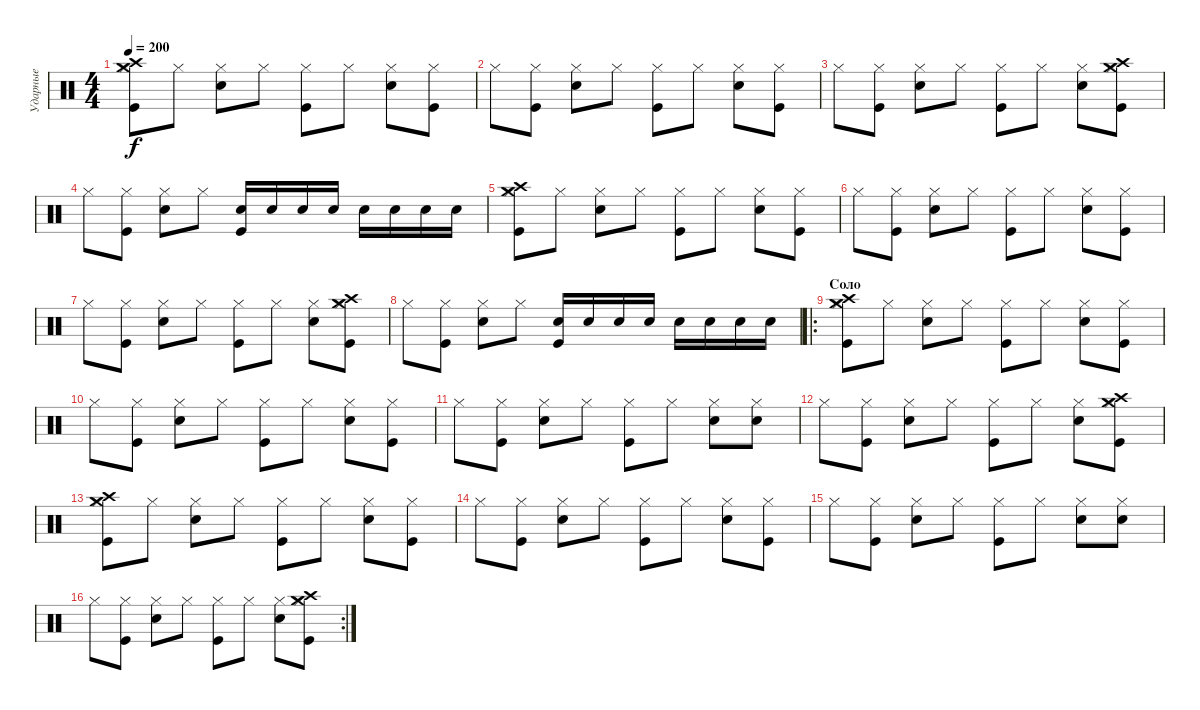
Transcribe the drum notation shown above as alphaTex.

\track ("Ударные" "Ударные") {instrument percussion}
\staff {score}
\articulation defaults
\ts (4 4)
\tempo 200
\clef neutral
\ks c
("Crash high (hit)" "Crash medium (hit)" "Hi-Hat (closed)" "Kick (hit)").8{dy f} "Hi-Hat (closed)".8 ("Electric Snare (hit)" "Hi-Hat (closed)").8 "Hi-Hat (closed)".8 ("Hi-Hat (closed)" "Kick (hit)").8 "Hi-Hat (closed)".8 ("Hi-Hat (closed)" "Electric Snare (hit)").8 ("Kick (hit)" "Hi-Hat (closed)").8 |
"Hi-Hat (closed)".8 ("Kick (hit)" "Hi-Hat (closed)").8 ("Electric Snare (hit)" "Hi-Hat (closed)").8 "Hi-Hat (closed)".8 ("Hi-Hat (closed)" "Kick (hit)").8 "Hi-Hat (closed)".8 ("Hi-Hat (closed)" "Electric Snare (hit)").8 ("Kick (hit)" "Hi-Hat (closed)").8 |
"Hi-Hat (closed)".8 ("Kick (hit)" "Hi-Hat (closed)").8 ("Electric Snare (hit)" "Hi-Hat (closed)").8 "Hi-Hat (closed)".8 ("Hi-Hat (closed)" "Kick (hit)").8 "Hi-Hat (closed)".8 ("Hi-Hat (closed)" "Electric Snare (hit)").8 ("Crash medium (hit)" "Hi-Hat (closed)" "Kick (hit)" "Crash high (hit)").8 |
"Hi-Hat (closed)".8 ("Kick (hit)" "Hi-Hat (closed)").8 ("Electric Snare (hit)" "Hi-Hat (closed)").8 "Hi-Hat (closed)".8 ("Electric Snare (hit)" "Kick (hit)").16 "Electric Snare (hit)".16 "Electric Snare (hit)".16 "Electric Snare (hit)".16 "Electric Snare (hit)".16 "Electric Snare (hit)".16 "Electric Snare (hit)".16 "Electric Snare (hit)".16 |
("Crash high (hit)" "Crash medium (hit)" "Hi-Hat (closed)" "Kick (hit)").8 "Hi-Hat (closed)".8 ("Electric Snare (hit)" "Hi-Hat (closed)").8 "Hi-Hat (closed)".8 ("Hi-Hat (closed)" "Kick (hit)").8 "Hi-Hat (closed)".8 ("Hi-Hat (closed)" "Electric Snare (hit)").8 ("Kick (hit)" "Hi-Hat (closed)").8 |
"Hi-Hat (closed)".8 ("Kick (hit)" "Hi-Hat (closed)").8 ("Electric Snare (hit)" "Hi-Hat (closed)").8 "Hi-Hat (closed)".8 ("Hi-Hat (closed)" "Kick (hit)").8 "Hi-Hat (closed)".8 ("Hi-Hat (closed)" "Electric Snare (hit)").8 ("Kick (hit)" "Hi-Hat (closed)").8 |
"Hi-Hat (closed)".8 ("Kick (hit)" "Hi-Hat (closed)").8 ("Electric Snare (hit)" "Hi-Hat (closed)").8 "Hi-Hat (closed)".8 ("Hi-Hat (closed)" "Kick (hit)").8 "Hi-Hat (closed)".8 ("Hi-Hat (closed)" "Electric Snare (hit)").8 ("Crash medium (hit)" "Hi-Hat (closed)" "Kick (hit)" "Crash high (hit)").8 |
"Hi-Hat (closed)".8 ("Kick (hit)" "Hi-Hat (closed)").8 ("Electric Snare (hit)" "Hi-Hat (closed)").8 "Hi-Hat (closed)".8 ("Electric Snare (hit)" "Kick (hit)").16 "Electric Snare (hit)".16 "Electric Snare (hit)".16 "Electric Snare (hit)".16 "Electric Snare (hit)".16 "Electric Snare (hit)".16 "Electric Snare (hit)".16 "Electric Snare (hit)".16 |
\ro
\section ("" "Соло")
("Hi-Hat (closed)" "Kick (hit)" "Crash high (hit)" "Crash medium (hit)").8 "Hi-Hat (closed)".8 ("Electric Snare (hit)" "Hi-Hat (closed)").8 "Hi-Hat (closed)".8 ("Hi-Hat (closed)" "Kick (hit)").8 "Hi-Hat (closed)".8 ("Hi-Hat (closed)" "Electric Snare (hit)").8 ("Hi-Hat (closed)" "Kick (hit)").8 |
"Hi-Hat (closed)".8 ("Hi-Hat (closed)" "Kick (hit)").8 ("Hi-Hat (closed)" "Electric Snare (hit)").8 "Hi-Hat (closed)".8 ("Kick (hit)" "Hi-Hat (closed)").8 "Hi-Hat (closed)".8 ("Electric Snare (hit)" "Hi-Hat (closed)").8 ("Kick (hit)" "Hi-Hat (closed)").8 |
"Hi-Hat (closed)".8 ("Kick (hit)" "Hi-Hat (closed)").8 ("Electric Snare (hit)" "Hi-Hat (closed)").8 "Hi-Hat (closed)".8 ("Hi-Hat (closed)" "Kick (hit)").8 "Hi-Hat (closed)".8 ("Hi-Hat (closed)" "Electric Snare (hit)").8 ("Electric Snare (hit)" "Hi-Hat (closed)").8 |
"Hi-Hat (closed)".8 ("Hi-Hat (closed)" "Kick (hit)").8 ("Hi-Hat (closed)" "Electric Snare (hit)").8 "Hi-Hat (closed)".8 ("Kick (hit)" "Hi-Hat (closed)").8 "Hi-Hat (closed)".8 ("Electric Snare (hit)" "Hi-Hat (closed)").8 ("Crash medium (hit)" "Hi-Hat (closed)" "Kick (hit)" "Crash high (hit)").8 |
("Hi-Hat (closed)" "Kick (hit)" "Crash high (hit)" "Crash medium (hit)").8 "Hi-Hat (closed)".8 ("Electric Snare (hit)" "Hi-Hat (closed)").8 "Hi-Hat (closed)".8 ("Hi-Hat (closed)" "Kick (hit)").8 "Hi-Hat (closed)".8 ("Hi-Hat (closed)" "Electric Snare (hit)").8 ("Hi-Hat (closed)" "Kick (hit)").8 |
"Hi-Hat (closed)".8 ("Hi-Hat (closed)" "Kick (hit)").8 ("Hi-Hat (closed)" "Electric Snare (hit)").8 "Hi-Hat (closed)".8 ("Kick (hit)" "Hi-Hat (closed)").8 "Hi-Hat (closed)".8 ("Electric Snare (hit)" "Hi-Hat (closed)").8 ("Kick (hit)" "Hi-Hat (closed)").8 |
"Hi-Hat (closed)".8 ("Kick (hit)" "Hi-Hat (closed)").8 ("Electric Snare (hit)" "Hi-Hat (closed)").8 "Hi-Hat (closed)".8 ("Hi-Hat (closed)" "Kick (hit)").8 "Hi-Hat (closed)".8 ("Hi-Hat (closed)" "Electric Snare (hit)").8 ("Electric Snare (hit)" "Hi-Hat (closed)").8 |
\rc 2 "Hi-Hat (closed)".8
("Hi-Hat (closed)" "Kick (hit)").8 ("Hi-Hat (closed)" "Electric Snare (hit)").8 "Hi-Hat (closed)".8 ("Kick (hit)" "Hi-Hat (closed)").8 "Hi-Hat (closed)".8 ("Electric Snare (hit)" "Hi-Hat (closed)").8 ("Crash medium (hit)" "Hi-Hat (closed)" "Kick (hit)" "Crash high (hit)").8
